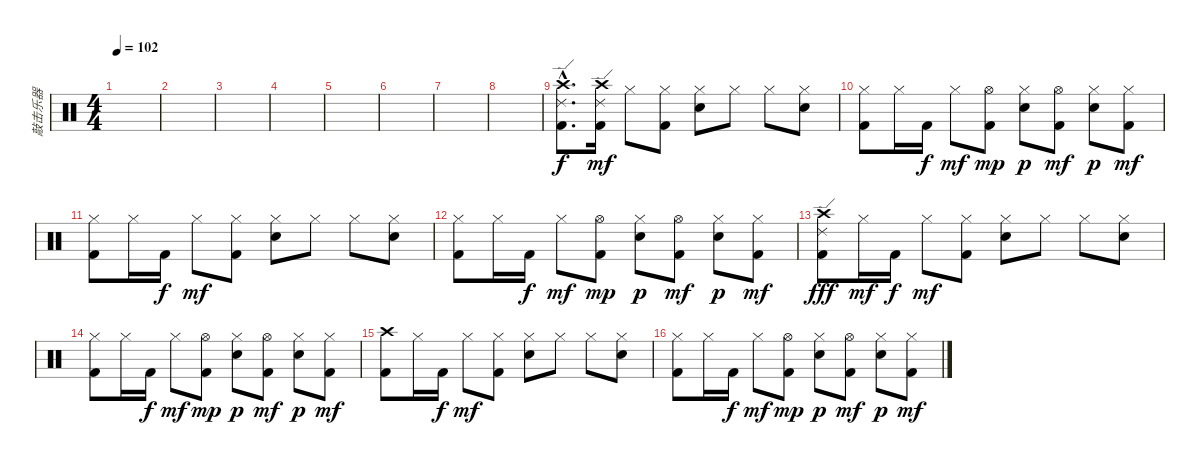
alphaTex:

\track ("敲击乐器" "敲击乐器") {instrument percussion}
\staff {score}
\articulation defaults
\ts (4 4)
\tempo 102
\clef neutral
\ks c
|
|
|
|
|
|
|
|
("Crash high (hit)"{hac} "Ride (edge) 2"{hac} "Kick (hit) 2"{hac}).8{d} ("Crash high (hit)" "Ride (edge) 2" "Kick (hit) 2").16{dy mf} "Hi-Hat (closed)".8 ("Hi-Hat (closed)" "Kick (hit) 2").8 ("Hi-Hat (closed)" "Electric Snare (hit)").8 "Hi-Hat (closed)".8 "Hi-Hat (closed)".8 ("Hi-Hat (closed)" "Electric Snare (hit)").8 |
("Hi-Hat (closed)" "Kick (hit) 2").8 "Hi-Hat (closed)".16 "Kick (hit) 2".16{dy f} "Hi-Hat (closed)".8{dy mf} ("Hi-Hat (open)" "Kick (hit) 2").8{dy mp} ("Hi-Hat (closed)" "Electric Snare (hit)").8{dy p} ("Hi-Hat (open)" "Kick (hit) 2").8{dy mf} ("Hi-Hat (closed)" "Electric Snare (hit)").8{dy p} ("Hi-Hat (closed)" "Kick (hit) 2").8{dy mf} |
("Hi-Hat (closed)" "Kick (hit) 2").8 "Hi-Hat (closed)".16 "Kick (hit) 2".16{dy f} "Hi-Hat (closed)".8{dy mf} ("Hi-Hat (closed)" "Kick (hit) 2").8 ("Hi-Hat (closed)" "Electric Snare (hit)").8 "Hi-Hat (closed)".8 "Hi-Hat (closed)".8 ("Hi-Hat (closed)" "Electric Snare (hit)").8 |
("Hi-Hat (closed)" "Kick (hit) 2").8 "Hi-Hat (closed)".16 "Kick (hit) 2".16{dy f} "Hi-Hat (closed)".8{dy mf} ("Hi-Hat (open)" "Kick (hit) 2").8{dy mp} ("Hi-Hat (closed)" "Electric Snare (hit)").8{dy p} ("Hi-Hat (open)" "Kick (hit) 2").8{dy mf} ("Hi-Hat (closed)" "Electric Snare (hit)").8{dy p} ("Hi-Hat (closed)" "Kick (hit) 2").8{dy mf} |
("Crash high (hit)" "Ride (edge) 2" "Kick (hit) 2").8{dy fff} "Hi-Hat (closed)".16{dy mf} "Kick (hit) 2".16{dy f} "Hi-Hat (closed)".8{dy mf} ("Hi-Hat (closed)" "Kick (hit) 2").8 ("Hi-Hat (closed)" "Electric Snare (hit)").8 "Hi-Hat (closed)".8 "Hi-Hat (closed)".8 ("Hi-Hat (closed)" "Electric Snare (hit)").8 |
("Hi-Hat (closed)" "Kick (hit) 2").8 "Hi-Hat (closed)".16 "Kick (hit) 2".16{dy f} "Hi-Hat (closed)".8{dy mf} ("Hi-Hat (open)" "Kick (hit) 2").8{dy mp} ("Hi-Hat (closed)" "Electric Snare (hit)").8{dy p} ("Hi-Hat (open)" "Kick (hit) 2").8{dy mf} ("Hi-Hat (closed)" "Electric Snare (hit)").8{dy p} ("Hi-Hat (closed)" "Kick (hit) 2").8{dy mf} |
("Crash high (hit)" "Kick (hit) 2").8 "Hi-Hat (closed)".16 "Kick (hit) 2".16{dy f} "Hi-Hat (closed)".8{dy mf} ("Hi-Hat (closed)" "Kick (hit) 2").8 ("Hi-Hat (closed)" "Electric Snare (hit)").8 "Hi-Hat (closed)".8 "Hi-Hat (closed)".8 ("Hi-Hat (closed)" "Electric Snare (hit)").8 |
("Hi-Hat (closed)" "Kick (hit) 2").8 "Hi-Hat (closed)".16 "Kick (hit) 2".16{dy f} "Hi-Hat (closed)".8{dy mf} ("Hi-Hat (open)" "Kick (hit) 2").8{dy mp} ("Hi-Hat (closed)" "Electric Snare (hit)").8{dy p} ("Hi-Hat (open)" "Kick (hit) 2").8{dy mf} ("Hi-Hat (closed)" "Electric Snare (hit)").8{dy p} ("Hi-Hat (closed)" "Kick (hit) 2").8{dy mf}
